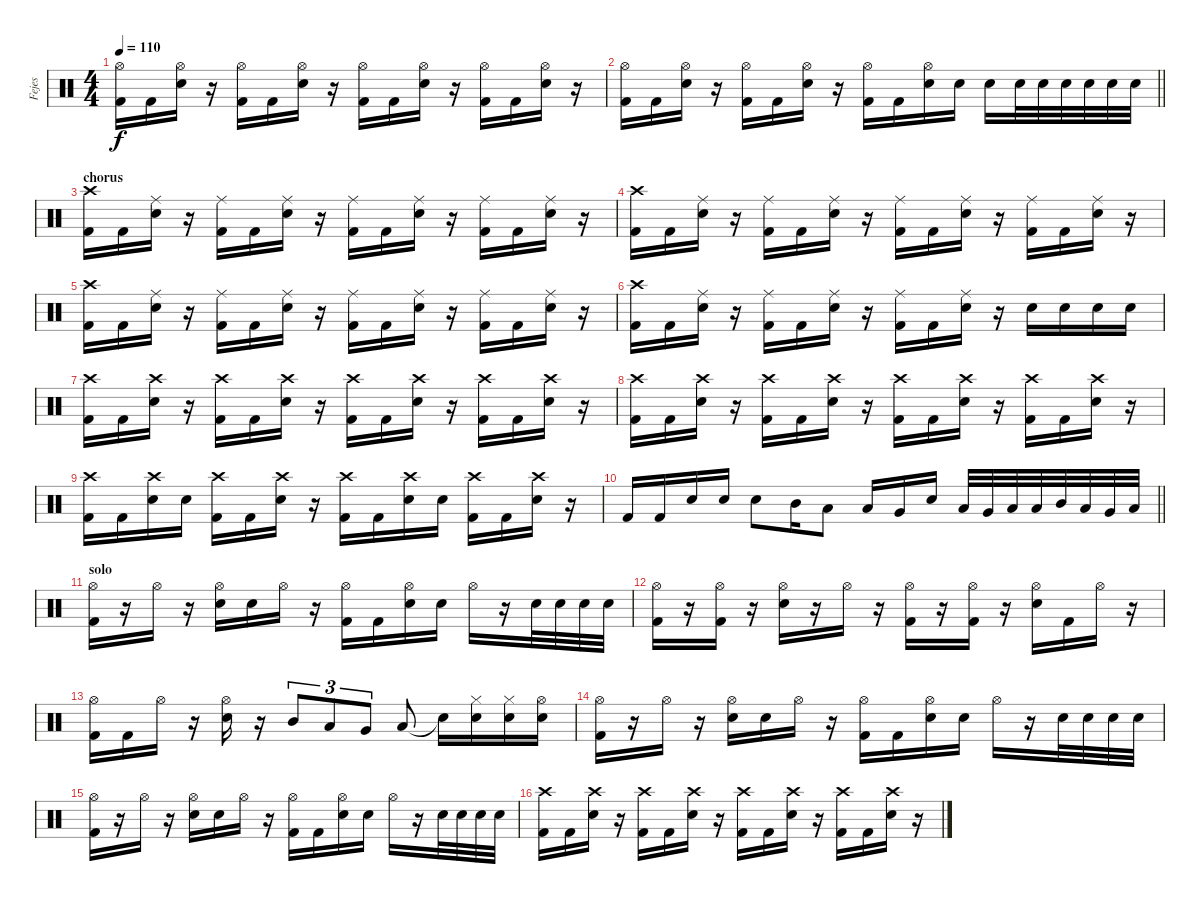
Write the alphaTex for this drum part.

\track ("Fejes" "Fejes") {instrument percussion}
\staff {score}
\articulation defaults
\ts (4 4)
\tempo 110
\clef neutral
\ks c
("Hi-Hat (open)" "Kick (hit) 2").16{dy f} "Kick (hit) 2".16 ("Hi-Hat (open)" "Snare (hit) 2").16 r.16 ("Hi-Hat (open)" "Kick (hit) 2").16 "Kick (hit) 2".16 ("Hi-Hat (open)" "Snare (hit) 2").16 r.16 ("Hi-Hat (open)" "Kick (hit) 2").16 "Kick (hit) 2".16 ("Hi-Hat (open)" "Snare (hit) 2").16 r.16 ("Hi-Hat (open)" "Kick (hit) 2").16 "Kick (hit) 2".16 ("Hi-Hat (open)" "Snare (hit) 2").16 r.16 |
\barLineRight lightlight
("Hi-Hat (open)" "Kick (hit) 2").16 "Kick (hit) 2".16 ("Hi-Hat (open)" "Snare (hit) 2").16 r.16 ("Hi-Hat (open)" "Kick (hit) 2").16 "Kick (hit) 2".16 ("Hi-Hat (open)" "Snare (hit) 2").16 r.16 ("Hi-Hat (open)" "Kick (hit) 2").16 "Kick (hit) 2".16 ("Hi-Hat (open)" "Snare (hit) 2").16 "Snare (hit) 2".16 "Snare (hit) 2".16 "Snare (hit) 2".32 "Snare (hit) 2".32 "Snare (hit) 2".32 "Snare (hit) 2".32 "Snare (hit) 2".32 "Snare (hit) 2".32 |
\section ("" "chorus")
("Crash high (hit)" "Kick (hit) 2").16 "Kick (hit) 2".16 ("Ride (middle)" "Snare (hit) 2").16 r.16 ("Ride (middle)" "Kick (hit) 2").16 "Kick (hit) 2".16 ("Ride (middle)" "Snare (hit) 2").16 r.16 ("Ride (middle)" "Kick (hit) 2").16 "Kick (hit) 2".16 ("Ride (middle)" "Snare (hit) 2").16 r.16 ("Ride (middle)" "Kick (hit) 2").16 "Kick (hit) 2".16 ("Ride (middle)" "Snare (hit) 2").16 r.16 |
("Crash high (hit)" "Kick (hit) 2").16 "Kick (hit) 2".16 ("Ride (middle)" "Snare (hit) 2").16 r.16 ("Ride (middle)" "Kick (hit) 2").16 "Kick (hit) 2".16 ("Ride (middle)" "Snare (hit) 2").16 r.16 ("Ride (middle)" "Kick (hit) 2").16 "Kick (hit) 2".16 ("Ride (middle)" "Snare (hit) 2").16 r.16 ("Ride (middle)" "Kick (hit) 2").16 "Kick (hit) 2".16 ("Ride (middle)" "Snare (hit) 2").16 r.16 |
("Crash high (hit)" "Kick (hit) 2").16 "Kick (hit) 2".16 ("Ride (middle)" "Snare (hit) 2").16 r.16 ("Ride (middle)" "Kick (hit) 2").16 "Kick (hit) 2".16 ("Ride (middle)" "Snare (hit) 2").16 r.16 ("Ride (middle)" "Kick (hit) 2").16 "Kick (hit) 2".16 ("Ride (middle)" "Snare (hit) 2").16 r.16 ("Ride (middle)" "Kick (hit) 2").16 "Kick (hit) 2".16 ("Ride (middle)" "Snare (hit) 2").16 r.16 |
("Crash high (hit)" "Kick (hit) 2").16 "Kick (hit) 2".16 ("Ride (middle)" "Snare (hit) 2").16 r.16 ("Ride (middle)" "Kick (hit) 2").16 "Kick (hit) 2".16 ("Ride (middle)" "Snare (hit) 2").16 r.16 ("Ride (middle)" "Kick (hit) 2").16 "Kick (hit) 2".16 ("Ride (middle)" "Snare (hit) 2").16 r.16 "Snare (hit) 2".16 "Snare (hit) 2".16 "Snare (hit) 2".16 "Snare (hit) 2".16 |
("Crash high (hit)" "Kick (hit) 2").16 "Kick (hit) 2".16 ("Crash high (hit)" "Snare (hit) 2").16 r.16 ("Crash high (hit)" "Kick (hit) 2").16 "Kick (hit) 2".16 ("Crash high (hit)" "Snare (hit) 2").16 r.16 ("Crash high (hit)" "Kick (hit) 2").16 "Kick (hit) 2".16 ("Crash high (hit)" "Snare (hit) 2").16 r.16 ("Crash high (hit)" "Kick (hit) 2").16 "Kick (hit) 2".16 ("Crash high (hit)" "Snare (hit) 2").16 r.16 |
("Crash high (hit)" "Kick (hit) 2").16 "Kick (hit) 2".16 ("Crash high (hit)" "Snare (hit) 2").16 r.16 ("Crash high (hit)" "Kick (hit) 2").16 "Kick (hit) 2".16 ("Crash high (hit)" "Snare (hit) 2").16 r.16 ("Crash high (hit)" "Kick (hit) 2").16 "Kick (hit) 2".16 ("Crash high (hit)" "Snare (hit) 2").16 r.16 ("Crash high (hit)" "Kick (hit) 2").16 "Kick (hit) 2".16 ("Crash high (hit)" "Snare (hit) 2").16 r.16 |
("Crash high (hit)" "Kick (hit) 2").16 "Kick (hit) 2".16 ("Crash high (hit)" "Snare (hit) 2").16 "Snare (hit) 2".16 ("Crash high (hit)" "Kick (hit) 2").16 "Kick (hit) 2".16 ("Crash high (hit)" "Snare (hit) 2").16 r.16 ("Crash high (hit)" "Kick (hit) 2").16 "Kick (hit) 2".16 ("Crash high (hit)" "Snare (hit) 2").16 "Snare (hit) 2".16 ("Crash high (hit)" "Kick (hit) 2").16 "Kick (hit) 2".16 ("Crash high (hit)" "Snare (hit) 2").16 r.16 |
\barLineRight lightlight "Kick (hit) 2".16 "Kick (hit) 2".16 "Snare (hit) 2".16 "Snare (hit) 2".16 "Snare (hit) 2".8 "Mid Tom (hit)".16 "Low Tom (hit)".8 "Low Tom (hit)".16 "Very Low Tom (hit)".16 "Snare (hit) 2".16 "Low Tom (hit)".32 "Very Low Tom (hit)".32 "Low Tom (hit)".32 "Low Floor Tom (hit)".32 "Mid Tom (hit)".32 "Low Tom (hit)".32 "Very Low Tom (hit)".32 "Low Floor Tom (hit)".32
|
\section ("" "solo")
("Hi-Hat (open)" "Kick (hit) 2").16 r.16 "Hi-Hat (open)".16 r.16 ("Hi-Hat (open)" "Snare (hit) 2").16 "Snare (hit) 2".16 "Hi-Hat (open)".16 r.16 ("Hi-Hat (open)" "Kick (hit) 2").16 "Kick (hit) 2".16 ("Hi-Hat (open)" "Snare (hit) 2").16 "Snare (hit) 2".16 "Hi-Hat (open)".16 r.16 "Snare (hit) 2".32 "Snare (hit) 2".32 "Snare (hit) 2".32 "Snare (hit) 2".32 |
("Hi-Hat (open)" "Kick (hit) 2").16 r.16 ("Hi-Hat (open)" "Kick (hit) 2").16 r.16 ("Hi-Hat (open)" "Snare (hit) 2").16 r.16 "Hi-Hat (open)".16 r.16 ("Hi-Hat (open)" "Kick (hit) 2").16 r.16 ("Hi-Hat (open)" "Kick (hit) 2").16 r.16 ("Hi-Hat (open)" "Snare (hit) 2").16 "Kick (hit) 2".16 "Hi-Hat (open)".16 r.16 |
("Hi-Hat (open)" "Kick (hit) 2").16 "Kick (hit) 2".16 "Hi-Hat (open)".16 r.16 ("Hi-Hat (open)" "Snare (hit) 2").16 r.16 "Mid Tom (hit)".8{tu (3 2)} "Low Tom (hit)".8{tu (3 2)} "Very Low Tom (hit)".8{tu (3 2)} "Low Floor Tom (hit)".8 "Snare (hit) 2"{t}.16 ("Hi-Hat (closed)" "Snare (hit) 2").16 ("Hi-Hat (closed)" "Snare (hit) 2").16 ("Hi-Hat (open)" "Snare (hit) 2").16 |
("Hi-Hat (open)" "Kick (hit) 2").16 r.16 "Hi-Hat (open)".16 r.16 ("Hi-Hat (open)" "Snare (hit) 2").16 "Snare (hit) 2".16 "Hi-Hat (open)".16 r.16 ("Hi-Hat (open)" "Kick (hit) 2").16 "Kick (hit) 2".16 ("Hi-Hat (open)" "Snare (hit) 2").16 "Snare (hit) 2".16 "Hi-Hat (open)".16 r.16 "Snare (hit) 2".32 "Snare (hit) 2".32 "Snare (hit) 2".32 "Snare (hit) 2".32 |
("Hi-Hat (open)" "Kick (hit) 2").16 r.16 "Hi-Hat (open)".16 r.16 ("Hi-Hat (open)" "Snare (hit) 2").16 "Snare (hit) 2".16 "Hi-Hat (open)".16 r.16 ("Hi-Hat (open)" "Kick (hit) 2").16 "Kick (hit) 2".16 ("Hi-Hat (open)" "Snare (hit) 2").16 "Snare (hit) 2".16 "Hi-Hat (open)".16 r.16 "Snare (hit) 2".32 "Snare (hit) 2".32 "Snare (hit) 2".32 "Snare (hit) 2".32 |
("Crash high (hit)" "Kick (hit) 2").16 "Kick (hit) 2".16 ("Crash high (hit)" "Snare (hit) 2").16 r.16 ("Crash high (hit)" "Kick (hit) 2").16 "Kick (hit) 2".16 ("Crash high (hit)" "Snare (hit) 2").16 r.16 ("Crash high (hit)" "Kick (hit) 2").16 "Kick (hit) 2".16 ("Crash high (hit)" "Snare (hit) 2").16 r.16 ("Crash high (hit)" "Kick (hit) 2").16 "Kick (hit) 2".16 ("Crash high (hit)" "Snare (hit) 2").16 r.16
